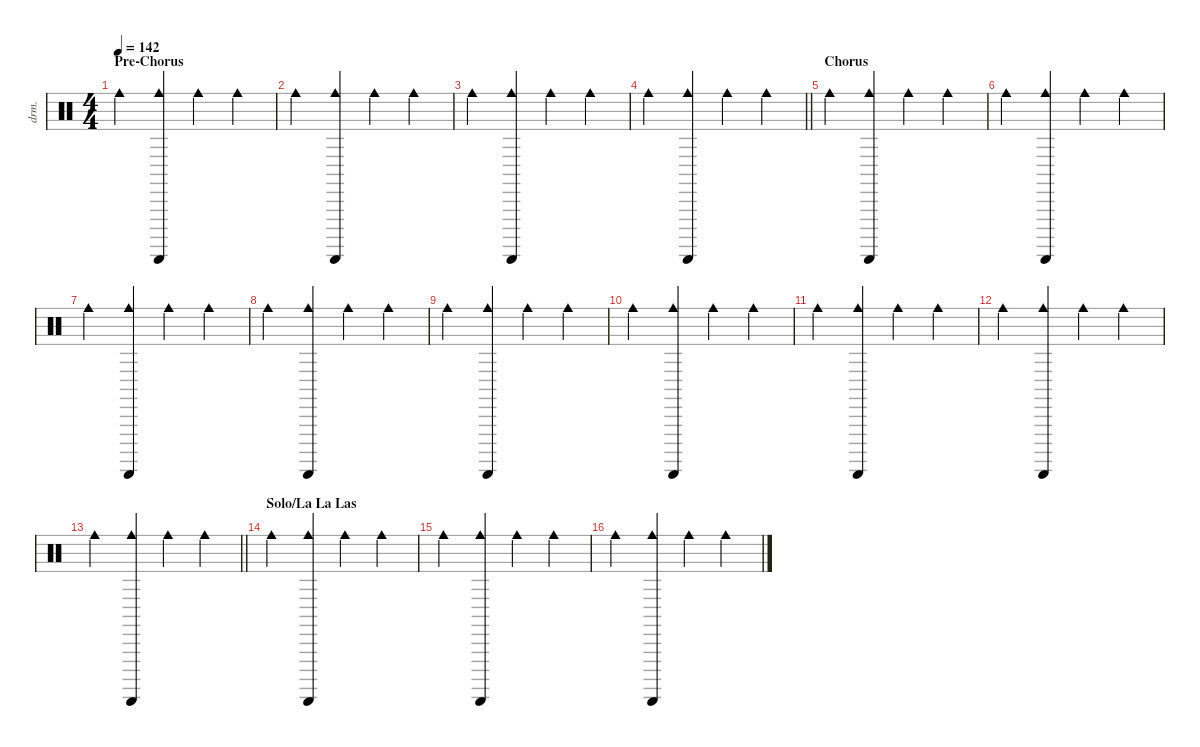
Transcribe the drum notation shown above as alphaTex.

\defaultSystemsLayout 4
\hideDynamics
\bracketExtendMode nobrackets
\otherSystemsTrackNameOrientation horizontal
\track ("Percussion" "drm.") {instrument percussion}
\staff {score}
\articulation defaults
\ts (4 4)
\section ("" "Pre-Chorus")
\tempo 142
\clef neutral
\ks c "Cowbell medium (hit)".4{dy mf beam Down}
("Guiro (scrap-return)" "Cowbell medium (hit)").4{dy p beam Up} "Cowbell medium (hit)".4{dy mf beam Down} "Cowbell medium (hit)".4{beam Down} |
"Cowbell medium (hit)".4{beam Down} ("Guiro (scrap-return)" "Cowbell medium (hit)").4{dy p beam Up} "Cowbell medium (hit)".4{dy mf beam Down} "Cowbell medium (hit)".4{beam Down} |
"Cowbell medium (hit)".4{beam Down} ("Guiro (scrap-return)" "Cowbell medium (hit)").4{dy p beam Up} "Cowbell medium (hit)".4{dy mf beam Down} "Cowbell medium (hit)".4{beam Down} |
\barLineRight lightlight "Cowbell medium (hit)".4{beam Down}
("Guiro (scrap-return)" "Cowbell medium (hit)").4{dy p beam Up} "Cowbell medium (hit)".4{dy mf beam Down} "Cowbell medium (hit)".4{beam Down} |
\section ("" "Chorus")
"Cowbell medium (hit)".4{beam Down} ("Guiro (scrap-return)" "Cowbell medium (hit)").4{dy p beam Up} "Cowbell medium (hit)".4{dy mf beam Down} "Cowbell medium (hit)".4{beam Down} |
"Cowbell medium (hit)".4{beam Down} ("Guiro (scrap-return)" "Cowbell medium (hit)").4{dy p beam Up} "Cowbell medium (hit)".4{dy mf beam Down} "Cowbell medium (hit)".4{beam Down} |
"Cowbell medium (hit)".4{beam Down} ("Guiro (scrap-return)" "Cowbell medium (hit)").4{dy p beam Up} "Cowbell medium (hit)".4{dy mf beam Down} "Cowbell medium (hit)".4{beam Down} |
"Cowbell medium (hit)".4{beam Down} ("Guiro (scrap-return)" "Cowbell medium (hit)").4{dy p beam Up} "Cowbell medium (hit)".4{dy mf beam Down} "Cowbell medium (hit)".4{beam Down} |
"Cowbell medium (hit)".4{beam Down} ("Guiro (scrap-return)" "Cowbell medium (hit)").4{dy p beam Up} "Cowbell medium (hit)".4{dy mf beam Down} "Cowbell medium (hit)".4{beam Down} |
"Cowbell medium (hit)".4{beam Down} ("Guiro (scrap-return)" "Cowbell medium (hit)").4{dy p beam Up} "Cowbell medium (hit)".4{dy mf beam Down} "Cowbell medium (hit)".4{beam Down} |
"Cowbell medium (hit)".4{beam Down} ("Guiro (scrap-return)" "Cowbell medium (hit)").4{dy p beam Up} "Cowbell medium (hit)".4{dy mf beam Down} "Cowbell medium (hit)".4{beam Down} |
"Cowbell medium (hit)".4{beam Down} ("Guiro (scrap-return)" "Cowbell medium (hit)").4{dy p beam Up} "Cowbell medium (hit)".4{dy mf beam Down} "Cowbell medium (hit)".4{beam Down} |
\barLineRight lightlight "Cowbell medium (hit)".4{beam Down}
("Guiro (scrap-return)" "Cowbell medium (hit)").4{dy p beam Up} "Cowbell medium (hit)".4{dy mf beam Down} "Cowbell medium (hit)".4{beam Down} |
\section ("" "Solo/La La Las")
"Cowbell medium (hit)".4{beam Down} ("Guiro (scrap-return)" "Cowbell medium (hit)").4{dy p beam Up} "Cowbell medium (hit)".4{dy mf beam Down} "Cowbell medium (hit)".4{beam Down} |
"Cowbell medium (hit)".4{beam Down} ("Guiro (scrap-return)" "Cowbell medium (hit)").4{dy p beam Up} "Cowbell medium (hit)".4{dy mf beam Down} "Cowbell medium (hit)".4{beam Down} |
"Cowbell medium (hit)".4{beam Down} ("Guiro (scrap-return)" "Cowbell medium (hit)").4{dy p beam Up} "Cowbell medium (hit)".4{dy mf beam Down} "Cowbell medium (hit)".4{beam Down}
